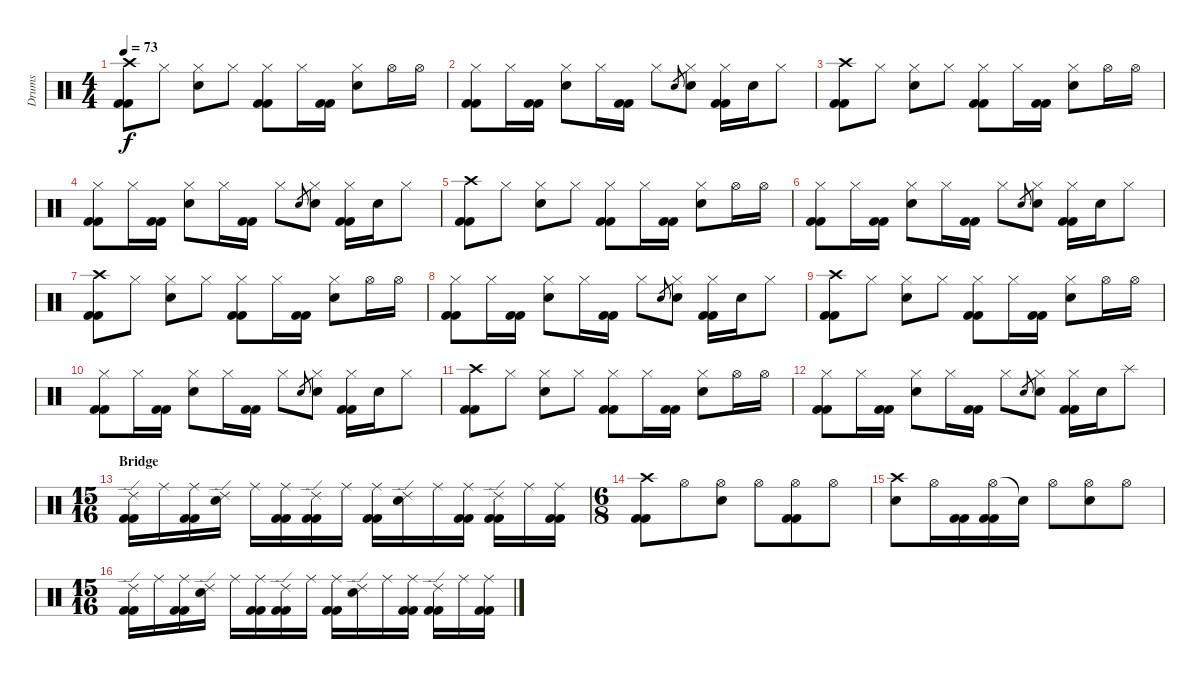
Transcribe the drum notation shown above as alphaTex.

\track ("Drums" "Drums") {instrument percussion}
\staff {score}
\articulation defaults
\ts (4 4)
\tempo 73
\clef neutral
\ks c
("Crash high (hit)" "Kick (hit) 2" "Kick (hit) 2").8{dy f} "Hi-Hat (closed)".8 ("Hi-Hat (closed)" "Snare (hit) 2").8 "Hi-Hat (closed)".8 ("Hi-Hat (closed)" "Kick (hit) 2" "Kick (hit) 2").8 "Hi-Hat (closed)".16 ("Kick (hit) 2" "Kick (hit) 2").16 ("Hi-Hat (closed)" "Snare (hit) 2").8 "Hi-Hat (open)".16 "Hi-Hat (open)".16 |
("Hi-Hat (closed)" "Kick (hit) 2" "Kick (hit) 2").8 "Hi-Hat (closed)".16 ("Kick (hit) 2" "Kick (hit) 2").16 ("Hi-Hat (closed)" "Snare (hit) 2").8 "Hi-Hat (closed)".16 ("Kick (hit) 2" "Kick (hit) 2").16 "Hi-Hat (closed)".8 "Snare (hit) 2".8{gr} ("Hi-Hat (closed)" "Snare (hit) 2").8 ("Hi-Hat (closed)" "Kick (hit) 2" "Kick (hit) 2").16 "Snare (hit) 2".16 "Hi-Hat (closed)".8 |
("Crash high (hit)" "Kick (hit) 2" "Kick (hit) 2").8 "Hi-Hat (closed)".8 ("Hi-Hat (closed)" "Snare (hit) 2").8 "Hi-Hat (closed)".8 ("Hi-Hat (closed)" "Kick (hit) 2" "Kick (hit) 2").8 "Hi-Hat (closed)".16 ("Kick (hit) 2" "Kick (hit) 2").16 ("Hi-Hat (closed)" "Snare (hit) 2").8 "Hi-Hat (open)".16 "Hi-Hat (open)".16 |
("Hi-Hat (closed)" "Kick (hit) 2" "Kick (hit) 2").8 "Hi-Hat (closed)".16 ("Kick (hit) 2" "Kick (hit) 2").16 ("Hi-Hat (closed)" "Snare (hit) 2").8 "Hi-Hat (closed)".16 ("Kick (hit) 2" "Kick (hit) 2").16 "Hi-Hat (closed)".8 "Snare (hit) 2".8{gr} ("Hi-Hat (closed)" "Snare (hit) 2").8 ("Hi-Hat (closed)" "Kick (hit) 2" "Kick (hit) 2").16 "Snare (hit) 2".16 "Hi-Hat (closed)".8 |
("Crash high (hit)" "Kick (hit) 2" "Kick (hit) 2").8 "Hi-Hat (closed)".8 ("Hi-Hat (closed)" "Snare (hit) 2").8 "Hi-Hat (closed)".8 ("Hi-Hat (closed)" "Kick (hit) 2" "Kick (hit) 2").8 "Hi-Hat (closed)".16 ("Kick (hit) 2" "Kick (hit) 2").16 ("Hi-Hat (closed)" "Snare (hit) 2").8 "Hi-Hat (open)".16 "Hi-Hat (open)".16 |
("Hi-Hat (closed)" "Kick (hit) 2" "Kick (hit) 2").8 "Hi-Hat (closed)".16 ("Kick (hit) 2" "Kick (hit) 2").16 ("Hi-Hat (closed)" "Snare (hit) 2").8 "Hi-Hat (closed)".16 ("Kick (hit) 2" "Kick (hit) 2").16 "Hi-Hat (closed)".8 "Snare (hit) 2".8{gr} ("Hi-Hat (closed)" "Snare (hit) 2").8 ("Hi-Hat (closed)" "Kick (hit) 2" "Kick (hit) 2").16 "Snare (hit) 2".16 "Hi-Hat (closed)".8 |
("Crash high (hit)" "Kick (hit) 2" "Kick (hit) 2").8 "Hi-Hat (closed)".8 ("Hi-Hat (closed)" "Snare (hit) 2").8 "Hi-Hat (closed)".8 ("Hi-Hat (closed)" "Kick (hit) 2" "Kick (hit) 2").8 "Hi-Hat (closed)".16 ("Kick (hit) 2" "Kick (hit) 2").16 ("Hi-Hat (closed)" "Snare (hit) 2").8 "Hi-Hat (open)".16 "Hi-Hat (open)".16 |
("Hi-Hat (closed)" "Kick (hit) 2" "Kick (hit) 2").8 "Hi-Hat (closed)".16 ("Kick (hit) 2" "Kick (hit) 2").16 ("Hi-Hat (closed)" "Snare (hit) 2").8 "Hi-Hat (closed)".16 ("Kick (hit) 2" "Kick (hit) 2").16 "Hi-Hat (closed)".8 "Snare (hit) 2".8{gr} ("Hi-Hat (closed)" "Snare (hit) 2").8 ("Hi-Hat (closed)" "Kick (hit) 2" "Kick (hit) 2").16 "Snare (hit) 2".16 "Hi-Hat (closed)".8 |
("Crash high (hit)" "Kick (hit) 2" "Kick (hit) 2").8 "Hi-Hat (closed)".8 ("Hi-Hat (closed)" "Snare (hit) 2").8 "Hi-Hat (closed)".8 ("Hi-Hat (closed)" "Kick (hit) 2" "Kick (hit) 2").8 "Hi-Hat (closed)".16 ("Kick (hit) 2" "Kick (hit) 2").16 ("Hi-Hat (closed)" "Snare (hit) 2").8 "Hi-Hat (open)".16 "Hi-Hat (open)".16 |
("Hi-Hat (closed)" "Kick (hit) 2" "Kick (hit) 2").8 "Hi-Hat (closed)".16 ("Kick (hit) 2" "Kick (hit) 2").16 ("Hi-Hat (closed)" "Snare (hit) 2").8 "Hi-Hat (closed)".16 ("Kick (hit) 2" "Kick (hit) 2").16 "Hi-Hat (closed)".8 "Snare (hit) 2".8{gr} ("Hi-Hat (closed)" "Snare (hit) 2").8 ("Hi-Hat (closed)" "Kick (hit) 2" "Kick (hit) 2").16 "Snare (hit) 2".16 "Hi-Hat (closed)".8 |
("Crash high (hit)" "Kick (hit) 2" "Kick (hit) 2").8 "Hi-Hat (closed)".8 ("Hi-Hat (closed)" "Snare (hit) 2").8 "Hi-Hat (closed)".8 ("Hi-Hat (closed)" "Kick (hit) 2" "Kick (hit) 2").8 "Hi-Hat (closed)".16 ("Kick (hit) 2" "Kick (hit) 2").16 ("Hi-Hat (closed)" "Snare (hit) 2").8 "Hi-Hat (open)".16 "Hi-Hat (open)".16 |
("Hi-Hat (closed)" "Kick (hit) 2" "Kick (hit) 2").8 "Hi-Hat (closed)".16 ("Kick (hit) 2" "Kick (hit) 2").16 ("Hi-Hat (closed)" "Snare (hit) 2").8 "Hi-Hat (closed)".16 ("Kick (hit) 2" "Kick (hit) 2").16 "Hi-Hat (closed)".8 "Snare (hit) 2".8{gr} ("Hi-Hat (closed)" "Snare (hit) 2").8 ("Hi-Hat (closed)" "Kick (hit) 2" "Kick (hit) 2").16 "Snare (hit) 2".16 "Splash (hit)".8 |
\ts (15 16)
\section ("" "Bridge")
("Ride (edge) 2" "Kick (hit) 2" "Kick (hit) 2").16 "Ride (middle)".16 ("Ride (middle)" "Kick (hit) 2" "Kick (hit) 2").16 ("Ride (edge) 2" "Snare (hit) 2").16 "Ride (middle)".16 ("Ride (middle)" "Kick (hit) 2" "Kick (hit) 2").16 ("Ride (edge) 2" "Kick (hit) 2" "Kick (hit) 2").16 "Ride (middle)".16 ("Ride (middle)" "Kick (hit) 2" "Kick (hit) 2").16 ("Ride (edge) 2" "Snare (hit) 2").16 "Ride (middle)".16 ("Ride (middle)" "Kick (hit) 2" "Kick (hit) 2").16 ("Ride (edge) 2" "Kick (hit) 2" "Kick (hit) 2").16 "Ride (middle)".16 ("Ride (middle)" "Kick (hit) 2" "Kick (hit) 2").16 |
\ts (6 8)
("Crash high (hit)" "Kick (hit) 2" "Kick (hit) 2").8 "Hi-Hat (open)".8 ("Hi-Hat (open)" "Snare (hit) 2").8 "Hi-Hat (open)".8 ("Hi-Hat (open)" "Kick (hit) 2" "Kick (hit) 2").8 "Hi-Hat (open)".8 |
("Crash high (hit)" "Snare (hit) 2").8 "Hi-Hat (open)".16 ("Kick (hit) 2" "Kick (hit) 2").16 ("Hi-Hat (open)" "Kick (hit) 2" "Kick (hit) 2").16 "Snare (hit)"{t}.16 "Hi-Hat (open)".8 ("Hi-Hat (open)" "Snare (hit) 2").8 "Hi-Hat (open)".8 |
\ts (15 16)
("Ride (edge) 2" "Kick (hit) 2" "Kick (hit) 2").16 "Ride (middle)".16 ("Ride (middle)" "Kick (hit) 2" "Kick (hit) 2").16 ("Ride (edge) 2" "Snare (hit) 2").16 "Ride (middle)".16 ("Ride (middle)" "Kick (hit) 2" "Kick (hit) 2").16 ("Ride (edge) 2" "Kick (hit) 2" "Kick (hit) 2").16 "Ride (middle)".16 ("Ride (middle)" "Kick (hit) 2" "Kick (hit) 2").16 ("Ride (edge) 2" "Snare (hit) 2").16 "Ride (middle)".16 ("Ride (middle)" "Kick (hit) 2" "Kick (hit) 2").16 ("Ride (edge) 2" "Kick (hit) 2" "Kick (hit) 2").16 "Ride (middle)".16 ("Ride (middle)" "Kick (hit) 2" "Kick (hit) 2").16
